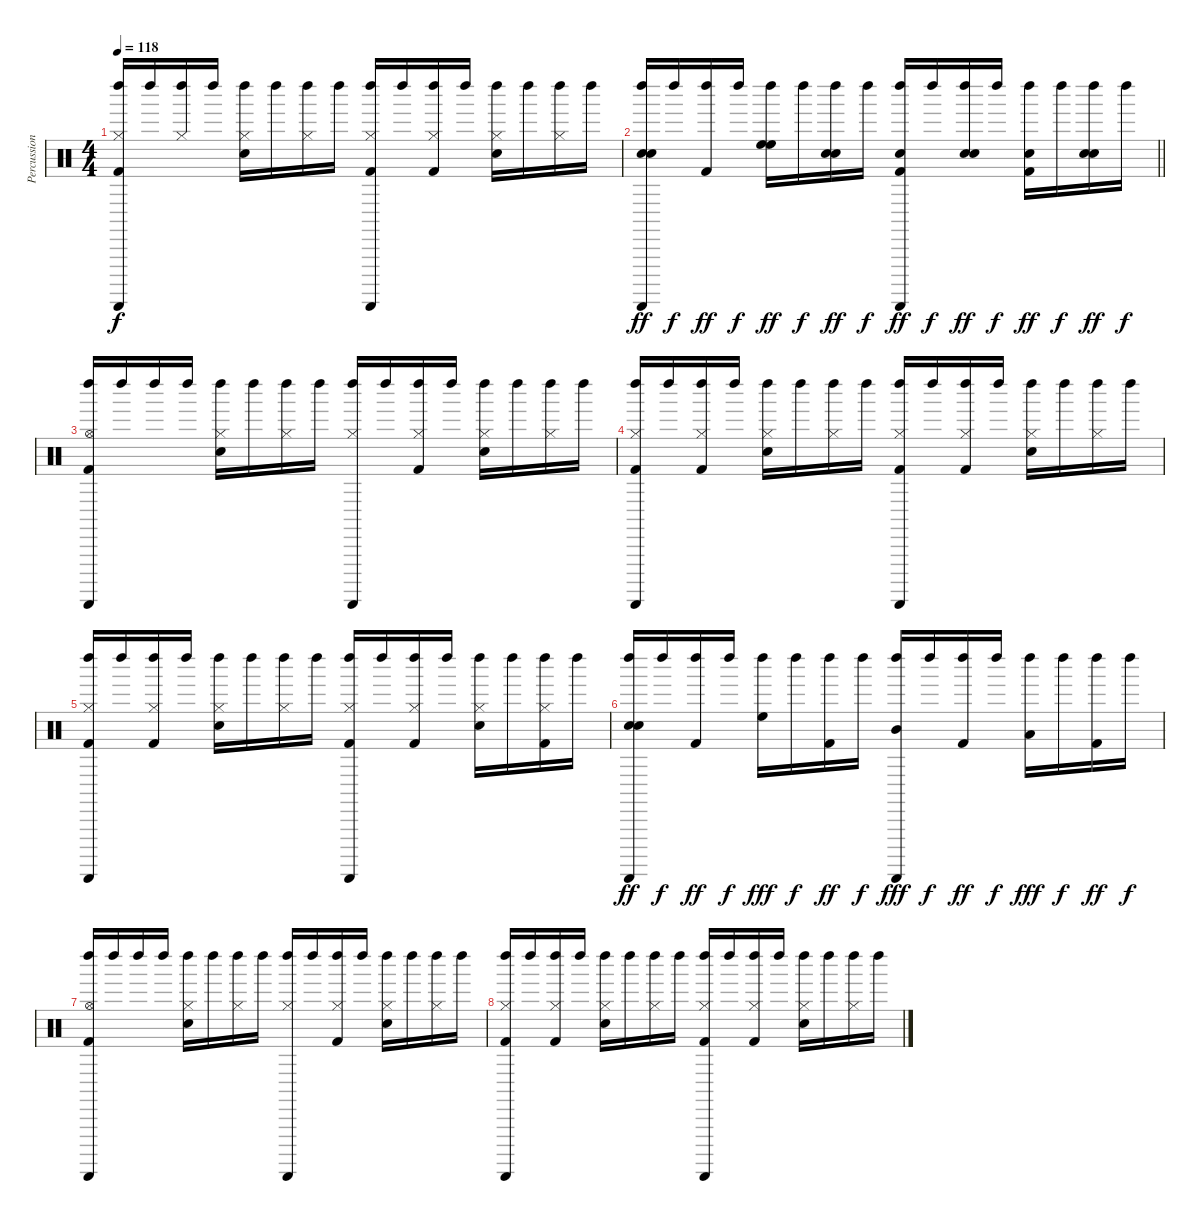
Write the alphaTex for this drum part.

\track ("Percussions" "Percussion") {instrument percussion}
\staff {score}
\articulation defaults
\ts (4 4)
\tempo 118
\clef neutral
\ks c
("Guiro (scrap-return)" "Left Maraca (hit)" "Hi-Hat (closed)" "Kick (hit) 2").16{dy f} "Left Maraca (hit)".16 ("Left Maraca (hit)" "Hi-Hat (closed)").16 "Left Maraca (hit)".16 ("Left Maraca (hit)" "Hi-Hat (closed)" "Snare (hit) 2").16 "Left Maraca (hit)".16 ("Left Maraca (hit)" "Hi-Hat (closed)").16 "Left Maraca (hit)".16 ("Guiro (scrap-return)" "Left Maraca (hit)" "Hi-Hat (closed)" "Kick (hit) 2").16 "Left Maraca (hit)".16 ("Left Maraca (hit)" "Hi-Hat (closed)" "Kick (hit) 2").16 "Left Maraca (hit)".16 ("Left Maraca (hit)" "Hi-Hat (closed)" "Snare (hit) 2").16 "Left Maraca (hit)".16 ("Left Maraca (hit)" "Hi-Hat (closed)").16 "Left Maraca (hit)".16 |
\barLineRight lightlight
("Guiro (scrap-return)" "Left Maraca (hit)" "Snare (hit) 2" "Snare (hit) 2").16{dy ff} "Left Maraca (hit)".16{dy f} ("Left Maraca (hit)" "Kick (hit) 2").16{dy ff} "Left Maraca (hit)".16{dy f} ("Left Maraca (hit)" "High Floor Tom (hit)" "High Floor Tom (hit)").16{dy ff} "Left Maraca (hit)".16{dy f} ("Left Maraca (hit)" "Snare (hit) 2" "Snare (hit) 2").16{dy ff} "Left Maraca (hit)".16{dy f} ("Guiro (scrap-return)" "Left Maraca (hit)" "Snare (hit) 2" "Kick (hit) 2").16{dy ff} "Left Maraca (hit)".16{dy f} ("Left Maraca (hit)" "Snare (hit) 2" "Snare (hit) 2").16{dy ff} "Left Maraca (hit)".16{dy f} ("Left Maraca (hit)" "Snare (hit) 2" "Kick (hit) 2").16{dy ff} "Left Maraca (hit)".16{dy f} ("Left Maraca (hit)" "Snare (hit) 2" "Snare (hit) 2").16{dy ff} "Left Maraca (hit)".16{dy f} |
("Guiro (scrap-return)" "Left Maraca (hit)" "Hi-Hat (open)" "Kick (hit) 2").16 "Left Maraca (hit)".16 "Left Maraca (hit)".16 "Left Maraca (hit)".16 ("Left Maraca (hit)" "Hi-Hat (closed)" "Snare (hit) 2").16 "Left Maraca (hit)".16 ("Left Maraca (hit)" "Hi-Hat (closed)").16 "Left Maraca (hit)".16 ("Guiro (scrap-return)" "Left Maraca (hit)" "Hi-Hat (closed)").16 "Left Maraca (hit)".16 ("Left Maraca (hit)" "Hi-Hat (closed)" "Kick (hit) 2").16 "Left Maraca (hit)".16 ("Left Maraca (hit)" "Hi-Hat (closed)" "Snare (hit) 2").16 "Left Maraca (hit)".16 ("Left Maraca (hit)" "Hi-Hat (closed)").16 "Left Maraca (hit)".16 |
("Guiro (scrap-return)" "Left Maraca (hit)" "Hi-Hat (closed)" "Kick (hit) 2").16 "Left Maraca (hit)".16 ("Left Maraca (hit)" "Hi-Hat (closed)" "Kick (hit) 2").16 "Left Maraca (hit)".16 ("Left Maraca (hit)" "Hi-Hat (closed)" "Snare (hit) 2").16 "Left Maraca (hit)".16 ("Left Maraca (hit)" "Hi-Hat (closed)").16 "Left Maraca (hit)".16 ("Guiro (scrap-return)" "Left Maraca (hit)" "Hi-Hat (closed)" "Kick (hit) 2").16 "Left Maraca (hit)".16 ("Left Maraca (hit)" "Hi-Hat (closed)" "Kick (hit) 2").16 "Left Maraca (hit)".16 ("Left Maraca (hit)" "Hi-Hat (closed)" "Snare (hit) 2").16 "Left Maraca (hit)".16 ("Left Maraca (hit)" "Hi-Hat (closed)").16 "Left Maraca (hit)".16 |
("Guiro (scrap-return)" "Left Maraca (hit)" "Hi-Hat (closed)" "Kick (hit) 2").16 "Left Maraca (hit)".16 ("Left Maraca (hit)" "Hi-Hat (closed)" "Kick (hit) 2").16 "Left Maraca (hit)".16 ("Left Maraca (hit)" "Hi-Hat (closed)" "Snare (hit) 2").16 "Left Maraca (hit)".16 ("Left Maraca (hit)" "Hi-Hat (closed)").16 "Left Maraca (hit)".16 ("Guiro (scrap-return)" "Left Maraca (hit)" "Hi-Hat (closed)" "Kick (hit) 2").16 "Left Maraca (hit)".16 ("Left Maraca (hit)" "Hi-Hat (closed)" "Kick (hit) 2").16 "Left Maraca (hit)".16 ("Left Maraca (hit)" "Hi-Hat (closed)" "Snare (hit) 2").16 "Left Maraca (hit)".16 ("Left Maraca (hit)" "Hi-Hat (closed)" "Kick (hit) 2").16 "Left Maraca (hit)".16 |
("Guiro (scrap-return)" "Left Maraca (hit)" "Snare (hit) 2" "Snare (hit) 2").16{dy ff} "Left Maraca (hit)".16{dy f} ("Left Maraca (hit)" "Kick (hit) 2").16{dy ff} "Left Maraca (hit)".16{dy f} ("Left Maraca (hit)" "High Floor Tom (hit)").16{dy fff} "Left Maraca (hit)".16{dy f} ("Left Maraca (hit)" "Kick (hit) 2").16{dy ff} "Left Maraca (hit)".16{dy f} ("Guiro (scrap-return)" "Left Maraca (hit)" "Mid Tom (hit)").16{dy fff} "Left Maraca (hit)".16{dy f} ("Left Maraca (hit)" "Kick (hit) 2").16{dy ff} "Left Maraca (hit)".16{dy f} ("Left Maraca (hit)" "Low Tom (hit)").16{dy fff} "Left Maraca (hit)".16{dy f} ("Left Maraca (hit)" "Kick (hit) 2").16{dy ff} "Left Maraca (hit)".16{dy f} |
("Guiro (scrap-return)" "Left Maraca (hit)" "Hi-Hat (open)" "Kick (hit) 2").16 "Left Maraca (hit)".16 "Left Maraca (hit)".16 "Left Maraca (hit)".16 ("Left Maraca (hit)" "Hi-Hat (closed)" "Snare (hit) 2").16 "Left Maraca (hit)".16 ("Left Maraca (hit)" "Hi-Hat (closed)").16 "Left Maraca (hit)".16 ("Guiro (scrap-return)" "Left Maraca (hit)" "Hi-Hat (closed)").16 "Left Maraca (hit)".16 ("Left Maraca (hit)" "Hi-Hat (closed)" "Kick (hit) 2").16 "Left Maraca (hit)".16 ("Left Maraca (hit)" "Hi-Hat (closed)" "Snare (hit) 2").16 "Left Maraca (hit)".16 ("Left Maraca (hit)" "Hi-Hat (closed)").16 "Left Maraca (hit)".16 |
("Guiro (scrap-return)" "Left Maraca (hit)" "Hi-Hat (closed)" "Kick (hit) 2").16 "Left Maraca (hit)".16 ("Left Maraca (hit)" "Hi-Hat (closed)" "Kick (hit) 2").16 "Left Maraca (hit)".16 ("Left Maraca (hit)" "Hi-Hat (closed)" "Snare (hit) 2").16 "Left Maraca (hit)".16 ("Left Maraca (hit)" "Hi-Hat (closed)").16 "Left Maraca (hit)".16 ("Guiro (scrap-return)" "Left Maraca (hit)" "Hi-Hat (closed)" "Kick (hit) 2").16 "Left Maraca (hit)".16 ("Left Maraca (hit)" "Hi-Hat (closed)" "Kick (hit) 2").16 "Left Maraca (hit)".16 ("Left Maraca (hit)" "Hi-Hat (closed)" "Snare (hit) 2").16 "Left Maraca (hit)".16 ("Left Maraca (hit)" "Hi-Hat (closed)").16 "Left Maraca (hit)".16
